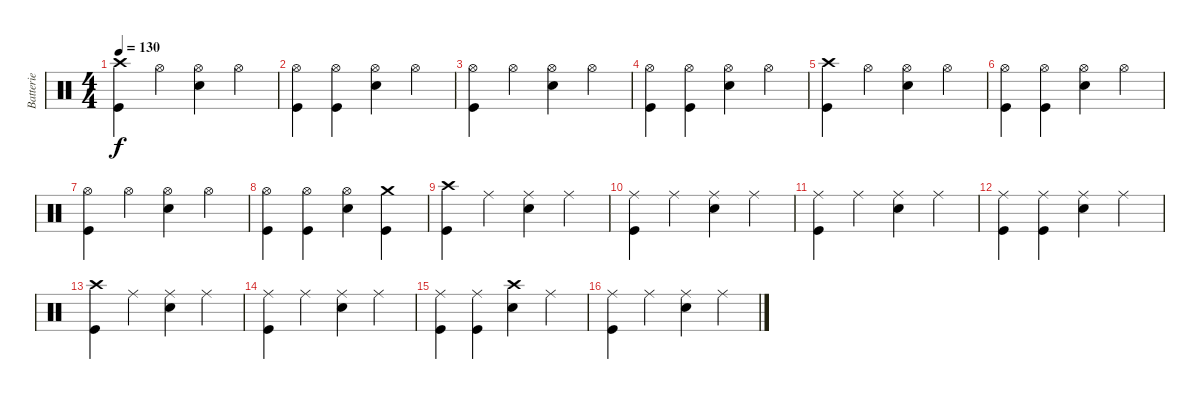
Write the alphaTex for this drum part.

\track ("Batterie" "Batterie") {instrument percussion}
\staff {score}
\articulation defaults
\ts (4 4)
\tempo 130
\clef neutral
\ks c
("Crash high (hit)" "Kick (hit)").4{dy f} "Hi-Hat (open)".4 ("Hi-Hat (open)" "Electric Snare (hit)").4 "Hi-Hat (open)".4 |
("Hi-Hat (open)" "Kick (hit)").4 ("Hi-Hat (open)" "Kick (hit)").4 ("Hi-Hat (open)" "Electric Snare (hit)").4 "Hi-Hat (open)".4 |
("Hi-Hat (open)" "Kick (hit)").4 "Hi-Hat (open)".4 ("Hi-Hat (open)" "Electric Snare (hit)").4 "Hi-Hat (open)".4 |
("Hi-Hat (open)" "Kick (hit)").4 ("Hi-Hat (open)" "Kick (hit)").4 ("Hi-Hat (open)" "Electric Snare (hit)").4 "Hi-Hat (open)".4 |
("Crash high (hit)" "Kick (hit)").4 "Hi-Hat (open)".4 ("Hi-Hat (open)" "Electric Snare (hit)").4 "Hi-Hat (open)".4 |
("Hi-Hat (open)" "Kick (hit)").4 ("Hi-Hat (open)" "Kick (hit)").4 ("Hi-Hat (open)" "Electric Snare (hit)").4 "Hi-Hat (open)".4 |
("Hi-Hat (open)" "Kick (hit)").4 "Hi-Hat (open)".4 ("Hi-Hat (open)" "Electric Snare (hit)").4 "Hi-Hat (open)".4 |
("Hi-Hat (open)" "Kick (hit)").4 ("Hi-Hat (open)" "Kick (hit)").4 ("Hi-Hat (open)" "Electric Snare (hit)").4 ("Crash medium (hit)" "Kick (hit)").4 |
("Crash high (hit)" "Kick (hit)").4 "Ride (middle)".4 ("Ride (middle)" "Electric Snare (hit)").4 "Ride (middle)".4 |
("Ride (middle)" "Kick (hit)").4 "Ride (middle)".4 ("Ride (middle)" "Electric Snare (hit)").4 "Ride (middle)".4 |
("Ride (middle)" "Kick (hit)").4 "Ride (middle)".4 ("Ride (middle)" "Electric Snare (hit)").4 "Ride (middle)".4 |
("Ride (middle)" "Kick (hit)").4 ("Ride (middle)" "Kick (hit)").4 ("Ride (middle)" "Electric Snare (hit)").4 "Ride (middle)".4 |
("Crash high (hit)" "Kick (hit)").4 "Ride (middle)".4 ("Ride (middle)" "Electric Snare (hit)").4 "Ride (middle)".4 |
("Ride (middle)" "Kick (hit)").4 "Ride (middle)".4 ("Ride (middle)" "Electric Snare (hit)").4 "Ride (middle)".4 |
("Ride (middle)" "Kick (hit)").4 ("Ride (middle)" "Kick (hit)").4 ("Crash high (hit)" "Electric Snare (hit)").4 "Ride (middle)".4 |
("Ride (middle)" "Kick (hit)").4 "Ride (middle)".4 ("Ride (middle)" "Electric Snare (hit)").4 "Ride (middle)".4
